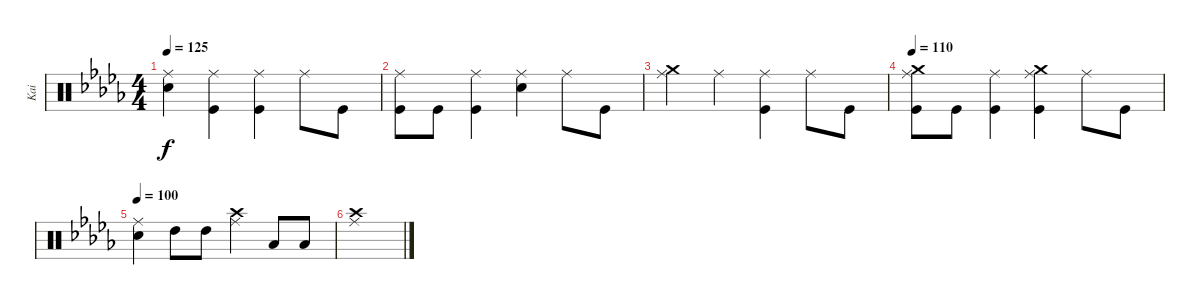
\track ("Kai" "Kai") {instrument percussion}
\staff {score}
\articulation defaults
\ts (4 4)
\tempo 125
\clef neutral
\ks bbminor
("Snare (hit) 2" "Ride (middle)").4{dy f} ("Kick (hit)" "Ride (middle)").4 ("Ride (middle)" "Kick (hit)").4 "Ride (middle)".8 "Kick (hit)".8 |
("Kick (hit)" "Ride (middle)").8 "Kick (hit)".8 ("Kick (hit)" "Ride (middle)").4 ("Ride (middle)" "Snare (hit) 2").4 "Ride (middle)".8 "Kick (hit)".8 |
("Crash medium (hit)" "Ride (middle)").4 "Ride (middle)".4 ("Ride (middle)" "Kick (hit)").4 "Ride (middle)".8 "Kick (hit)".8 |
\tempo 110
("Crash medium (hit)" "Kick (hit)" "Ride (middle)").8 "Kick (hit)".8 ("Kick (hit)" "Ride (middle)").4 ("Crash medium (hit)" "Ride (middle)" "Kick (hit)").4 "Ride (middle)".8 "Kick (hit)".8 |
\tempo 100
("Snare (hit) 2" "Ride (middle)").4 "High Tom (hit)".8 "High Tom (hit)".8 ("Crash high (hit)" "Ride (middle)").4 "Low Tom (hit)".8 "Low Tom (hit)".8 |
("Crash high (hit)" "Ride (middle)").1
